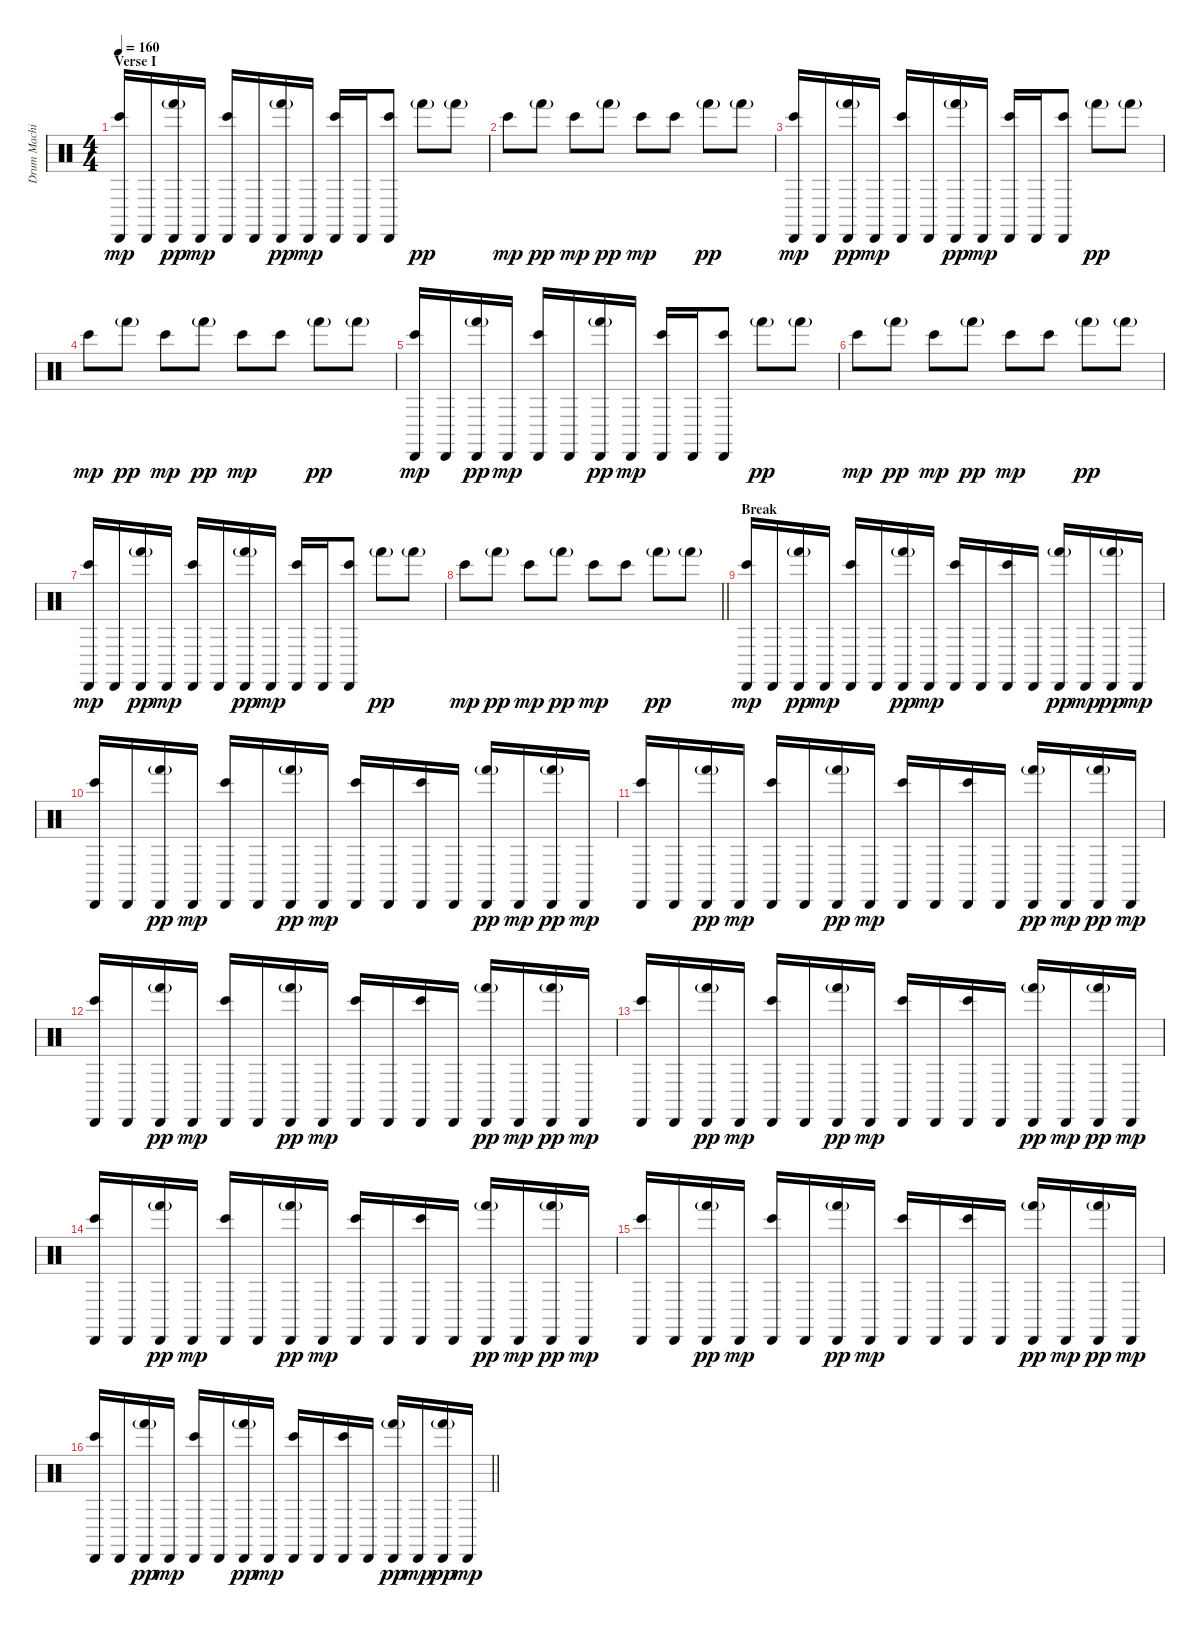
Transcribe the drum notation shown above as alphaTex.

\track ("Drum Machine" "Drum Machi") {instrument percussion}
\staff {score}
\articulation defaults
\ts (4 4)
\section ("" "Verse I")
\tempo 160
\clef neutral
\ks c
("Cabasa (hit)" "Bongo High (hit)").16{dy mp} "Cabasa (hit)".16 ("Cabasa (hit)" "Hand (hit)"{g}).16{dy pp} "Cabasa (hit)".16{dy mp} ("Cabasa (hit)" "Bongo High (hit)").16 "Cabasa (hit)".16 ("Cabasa (hit)" "Hand (hit)"{g}).16{dy pp} "Cabasa (hit)".16{dy mp} ("Cabasa (hit)" "Bongo High (hit)").16 "Cabasa (hit)".16 ("Cabasa (hit)" "Bongo High (hit)").8 "Hand (hit)"{g}.8{dy pp} "Hand (hit)"{g}.8 |
"Bongo High (hit)".8{dy mp} "Hand (hit)"{g}.8{dy pp} "Bongo High (hit)".8{dy mp} "Hand (hit)"{g}.8{dy pp} "Bongo High (hit)".8{dy mp} "Bongo High (hit)".8 "Hand (hit)"{g}.8{dy pp} "Hand (hit)"{g}.8 |
("Cabasa (hit)" "Bongo High (hit)").16{dy mp} "Cabasa (hit)".16 ("Cabasa (hit)" "Hand (hit)"{g}).16{dy pp} "Cabasa (hit)".16{dy mp} ("Cabasa (hit)" "Bongo High (hit)").16 "Cabasa (hit)".16 ("Cabasa (hit)" "Hand (hit)"{g}).16{dy pp} "Cabasa (hit)".16{dy mp} ("Cabasa (hit)" "Bongo High (hit)").16 "Cabasa (hit)".16 ("Cabasa (hit)" "Bongo High (hit)").8 "Hand (hit)"{g}.8{dy pp} "Hand (hit)"{g}.8 |
"Bongo High (hit)".8{dy mp} "Hand (hit)"{g}.8{dy pp} "Bongo High (hit)".8{dy mp} "Hand (hit)"{g}.8{dy pp} "Bongo High (hit)".8{dy mp} "Bongo High (hit)".8 "Hand (hit)"{g}.8{dy pp} "Hand (hit)"{g}.8 |
("Cabasa (hit)" "Bongo High (hit)").16{dy mp} "Cabasa (hit)".16 ("Cabasa (hit)" "Hand (hit)"{g}).16{dy pp} "Cabasa (hit)".16{dy mp} ("Cabasa (hit)" "Bongo High (hit)").16 "Cabasa (hit)".16 ("Cabasa (hit)" "Hand (hit)"{g}).16{dy pp} "Cabasa (hit)".16{dy mp} ("Cabasa (hit)" "Bongo High (hit)").16 "Cabasa (hit)".16 ("Cabasa (hit)" "Bongo High (hit)").8 "Hand (hit)"{g}.8{dy pp} "Hand (hit)"{g}.8 |
"Bongo High (hit)".8{dy mp} "Hand (hit)"{g}.8{dy pp} "Bongo High (hit)".8{dy mp} "Hand (hit)"{g}.8{dy pp} "Bongo High (hit)".8{dy mp} "Bongo High (hit)".8 "Hand (hit)"{g}.8{dy pp} "Hand (hit)"{g}.8 |
("Cabasa (hit)" "Bongo High (hit)").16{dy mp} "Cabasa (hit)".16 ("Cabasa (hit)" "Hand (hit)"{g}).16{dy pp} "Cabasa (hit)".16{dy mp} ("Cabasa (hit)" "Bongo High (hit)").16 "Cabasa (hit)".16 ("Cabasa (hit)" "Hand (hit)"{g}).16{dy pp} "Cabasa (hit)".16{dy mp} ("Cabasa (hit)" "Bongo High (hit)").16 "Cabasa (hit)".16 ("Cabasa (hit)" "Bongo High (hit)").8 "Hand (hit)"{g}.8{dy pp} "Hand (hit)"{g}.8 |
\barLineRight lightlight "Bongo High (hit)".8{dy mp} "Hand (hit)"{g}.8{dy pp} "Bongo High (hit)".8{dy mp} "Hand (hit)"{g}.8{dy pp} "Bongo High (hit)".8{dy mp} "Bongo High (hit)".8 "Hand (hit)"{g}.8{dy pp} "Hand (hit)"{g}.8
|
\section ("" "Break")
("Cabasa (hit)" "Bongo High (hit)").16{dy mp} "Cabasa (hit)".16 ("Cabasa (hit)" "Hand (hit)"{g}).16{dy pp} "Cabasa (hit)".16{dy mp} ("Cabasa (hit)" "Bongo High (hit)").16 "Cabasa (hit)".16 ("Cabasa (hit)" "Hand (hit)"{g}).16{dy pp} "Cabasa (hit)".16{dy mp} ("Cabasa (hit)" "Bongo High (hit)").16 "Cabasa (hit)".16 ("Cabasa (hit)" "Bongo High (hit)").16 "Cabasa (hit)".16 ("Cabasa (hit)" "Hand (hit)"{g}).16{dy pp} "Cabasa (hit)".16{dy mp} ("Cabasa (hit)" "Hand (hit)"{g}).16{dy pp} "Cabasa (hit)".16{dy mp} |
("Cabasa (hit)" "Bongo High (hit)").16 "Cabasa (hit)".16 ("Cabasa (hit)" "Hand (hit)"{g}).16{dy pp} "Cabasa (hit)".16{dy mp} ("Cabasa (hit)" "Bongo High (hit)").16 "Cabasa (hit)".16 ("Cabasa (hit)" "Hand (hit)"{g}).16{dy pp} "Cabasa (hit)".16{dy mp} ("Cabasa (hit)" "Bongo High (hit)").16 "Cabasa (hit)".16 ("Cabasa (hit)" "Bongo High (hit)").16 "Cabasa (hit)".16 ("Cabasa (hit)" "Hand (hit)"{g}).16{dy pp} "Cabasa (hit)".16{dy mp} ("Cabasa (hit)" "Hand (hit)"{g}).16{dy pp} "Cabasa (hit)".16{dy mp} |
("Cabasa (hit)" "Bongo High (hit)").16 "Cabasa (hit)".16 ("Cabasa (hit)" "Hand (hit)"{g}).16{dy pp} "Cabasa (hit)".16{dy mp} ("Cabasa (hit)" "Bongo High (hit)").16 "Cabasa (hit)".16 ("Cabasa (hit)" "Hand (hit)"{g}).16{dy pp} "Cabasa (hit)".16{dy mp} ("Cabasa (hit)" "Bongo High (hit)").16 "Cabasa (hit)".16 ("Cabasa (hit)" "Bongo High (hit)").16 "Cabasa (hit)".16 ("Cabasa (hit)" "Hand (hit)"{g}).16{dy pp} "Cabasa (hit)".16{dy mp} ("Cabasa (hit)" "Hand (hit)"{g}).16{dy pp} "Cabasa (hit)".16{dy mp} |
("Cabasa (hit)" "Bongo High (hit)").16 "Cabasa (hit)".16 ("Cabasa (hit)" "Hand (hit)"{g}).16{dy pp} "Cabasa (hit)".16{dy mp} ("Cabasa (hit)" "Bongo High (hit)").16 "Cabasa (hit)".16 ("Cabasa (hit)" "Hand (hit)"{g}).16{dy pp} "Cabasa (hit)".16{dy mp} ("Cabasa (hit)" "Bongo High (hit)").16 "Cabasa (hit)".16 ("Cabasa (hit)" "Bongo High (hit)").16 "Cabasa (hit)".16 ("Cabasa (hit)" "Hand (hit)"{g}).16{dy pp} "Cabasa (hit)".16{dy mp} ("Cabasa (hit)" "Hand (hit)"{g}).16{dy pp} "Cabasa (hit)".16{dy mp} |
("Cabasa (hit)" "Bongo High (hit)").16 "Cabasa (hit)".16 ("Cabasa (hit)" "Hand (hit)"{g}).16{dy pp} "Cabasa (hit)".16{dy mp} ("Cabasa (hit)" "Bongo High (hit)").16 "Cabasa (hit)".16 ("Cabasa (hit)" "Hand (hit)"{g}).16{dy pp} "Cabasa (hit)".16{dy mp} ("Cabasa (hit)" "Bongo High (hit)").16 "Cabasa (hit)".16 ("Cabasa (hit)" "Bongo High (hit)").16 "Cabasa (hit)".16 ("Cabasa (hit)" "Hand (hit)"{g}).16{dy pp} "Cabasa (hit)".16{dy mp} ("Cabasa (hit)" "Hand (hit)"{g}).16{dy pp} "Cabasa (hit)".16{dy mp} |
("Cabasa (hit)" "Bongo High (hit)").16 "Cabasa (hit)".16 ("Cabasa (hit)" "Hand (hit)"{g}).16{dy pp} "Cabasa (hit)".16{dy mp} ("Cabasa (hit)" "Bongo High (hit)").16 "Cabasa (hit)".16 ("Cabasa (hit)" "Hand (hit)"{g}).16{dy pp} "Cabasa (hit)".16{dy mp} ("Cabasa (hit)" "Bongo High (hit)").16 "Cabasa (hit)".16 ("Cabasa (hit)" "Bongo High (hit)").16 "Cabasa (hit)".16 ("Cabasa (hit)" "Hand (hit)"{g}).16{dy pp} "Cabasa (hit)".16{dy mp} ("Cabasa (hit)" "Hand (hit)"{g}).16{dy pp} "Cabasa (hit)".16{dy mp} |
("Cabasa (hit)" "Bongo High (hit)").16 "Cabasa (hit)".16 ("Cabasa (hit)" "Hand (hit)"{g}).16{dy pp} "Cabasa (hit)".16{dy mp} ("Cabasa (hit)" "Bongo High (hit)").16 "Cabasa (hit)".16 ("Cabasa (hit)" "Hand (hit)"{g}).16{dy pp} "Cabasa (hit)".16{dy mp} ("Cabasa (hit)" "Bongo High (hit)").16 "Cabasa (hit)".16 ("Cabasa (hit)" "Bongo High (hit)").16 "Cabasa (hit)".16 ("Cabasa (hit)" "Hand (hit)"{g}).16{dy pp} "Cabasa (hit)".16{dy mp} ("Cabasa (hit)" "Hand (hit)"{g}).16{dy pp} "Cabasa (hit)".16{dy mp} |
\barLineRight lightlight
("Cabasa (hit)" "Bongo High (hit)").16 "Cabasa (hit)".16 ("Cabasa (hit)" "Hand (hit)"{g}).16{dy pp} "Cabasa (hit)".16{dy mp} ("Cabasa (hit)" "Bongo High (hit)").16 "Cabasa (hit)".16 ("Cabasa (hit)" "Hand (hit)"{g}).16{dy pp} "Cabasa (hit)".16{dy mp} ("Cabasa (hit)" "Bongo High (hit)").16 "Cabasa (hit)".16 ("Cabasa (hit)" "Bongo High (hit)").16 "Cabasa (hit)".16 ("Cabasa (hit)" "Hand (hit)"{g}).16{dy pp} "Cabasa (hit)".16{dy mp} ("Cabasa (hit)" "Hand (hit)"{g}).16{dy pp} "Cabasa (hit)".16{dy mp}
